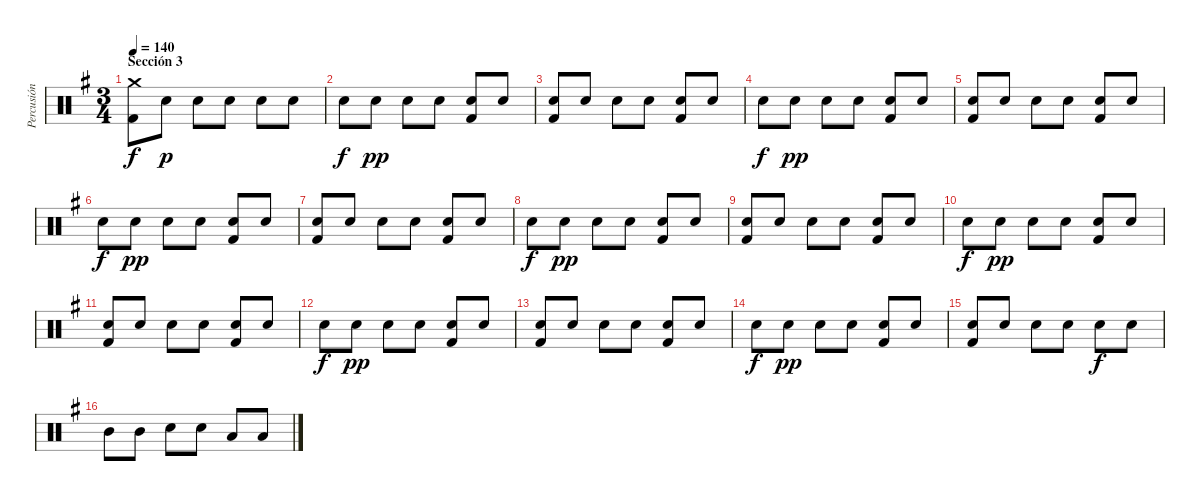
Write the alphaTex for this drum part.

\track ("Percusión" "Percusión") {instrument percussion}
\staff {score}
\articulation defaults
\ts (3 4)
\section ("" "Sección 3")
\tempo 140
\clef neutral
\ks g
("Crash medium (hit)" "Kick (hit) 2").8{dy f} "Snare (hit) 2".8{dy p} "Snare (hit) 2".8 "Snare (hit) 2".8 "Snare (hit) 2".8 "Snare (hit) 2".8 |
"Snare (hit) 2".8{dy f} "Snare (hit) 2".8{dy pp} "Snare (hit) 2".8 "Snare (hit) 2".8 ("Snare (hit) 2" "Kick (hit) 2").8 "Snare (hit) 2".8 |
("Snare (hit) 2" "Kick (hit) 2").8 "Snare (hit) 2".8 "Snare (hit) 2".8 "Snare (hit) 2".8 ("Snare (hit) 2" "Kick (hit) 2").8 "Snare (hit) 2".8 |
"Snare (hit) 2".8{dy f} "Snare (hit) 2".8{dy pp} "Snare (hit) 2".8 "Snare (hit) 2".8 ("Snare (hit) 2" "Kick (hit) 2").8 "Snare (hit) 2".8 |
("Snare (hit) 2" "Kick (hit) 2").8 "Snare (hit) 2".8 "Snare (hit) 2".8 "Snare (hit) 2".8 ("Snare (hit) 2" "Kick (hit) 2").8 "Snare (hit) 2".8 |
"Snare (hit) 2".8{dy f} "Snare (hit) 2".8{dy pp} "Snare (hit) 2".8 "Snare (hit) 2".8 ("Snare (hit) 2" "Kick (hit) 2").8 "Snare (hit) 2".8 |
("Snare (hit) 2" "Kick (hit) 2").8 "Snare (hit) 2".8 "Snare (hit) 2".8 "Snare (hit) 2".8 ("Snare (hit) 2" "Kick (hit) 2").8 "Snare (hit) 2".8 |
"Snare (hit) 2".8{dy f} "Snare (hit) 2".8{dy pp} "Snare (hit) 2".8 "Snare (hit) 2".8 ("Snare (hit) 2" "Kick (hit) 2").8 "Snare (hit) 2".8 |
("Snare (hit) 2" "Kick (hit) 2").8 "Snare (hit) 2".8 "Snare (hit) 2".8 "Snare (hit) 2".8 ("Snare (hit) 2" "Kick (hit) 2").8 "Snare (hit) 2".8 |
"Snare (hit) 2".8{dy f} "Snare (hit) 2".8{dy pp} "Snare (hit) 2".8 "Snare (hit) 2".8 ("Snare (hit) 2" "Kick (hit) 2").8 "Snare (hit) 2".8 |
("Snare (hit) 2" "Kick (hit) 2").8 "Snare (hit) 2".8 "Snare (hit) 2".8 "Snare (hit) 2".8 ("Snare (hit) 2" "Kick (hit) 2").8 "Snare (hit) 2".8 |
"Snare (hit) 2".8{dy f} "Snare (hit) 2".8{dy pp} "Snare (hit) 2".8 "Snare (hit) 2".8 ("Snare (hit) 2" "Kick (hit) 2").8 "Snare (hit) 2".8 |
("Snare (hit) 2" "Kick (hit) 2").8 "Snare (hit) 2".8 "Snare (hit) 2".8 "Snare (hit) 2".8 ("Snare (hit) 2" "Kick (hit) 2").8 "Snare (hit) 2".8 |
"Snare (hit) 2".8{dy f} "Snare (hit) 2".8{dy pp} "Snare (hit) 2".8 "Snare (hit) 2".8 ("Snare (hit) 2" "Kick (hit) 2").8 "Snare (hit) 2".8 |
("Snare (hit) 2" "Kick (hit) 2").8 "Snare (hit) 2".8 "Snare (hit) 2".8 "Snare (hit) 2".8 "Snare (hit) 2".8{dy f} "Snare (hit) 2".8 |
"Mid Tom (hit)".8 "Mid Tom (hit)".8 "Snare (hit) 2".8 "Snare (hit) 2".8 "Low Tom (hit)".8 "Low Tom (hit)".8
